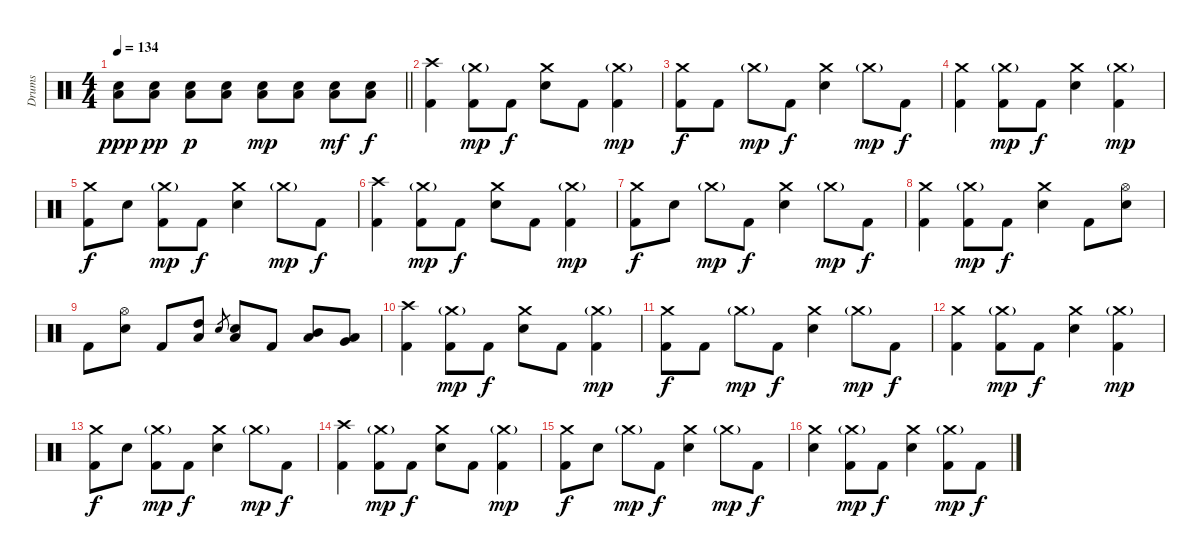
\track ("Drums" "Drums") {instrument percussion}
\staff {score}
\articulation defaults
\ts (4 4)
\tempo 134
\clef neutral
\barLineRight lightlight
\ks c
("Low Tom (hit)" "Electric Snare (hit)").8{dy ppp} ("Low Tom (hit)" "Electric Snare (hit)").8{dy pp} ("Low Tom (hit)" "Electric Snare (hit)").8{dy p} ("Low Tom (hit)" "Electric Snare (hit)").8 ("Low Tom (hit)" "Electric Snare (hit)").8{dy mp} ("Low Tom (hit)" "Electric Snare (hit)").8 ("Low Tom (hit)" "Electric Snare (hit)").8{dy mf} ("Low Tom (hit)" "Electric Snare (hit)").8{dy f} |
("Crash high (hit)" "Kick (hit) 2").4 ("Crash medium (hit)"{g} "Kick (hit) 2").8{dy mp} "Kick (hit) 2".8{dy f} ("Crash medium (hit)" "Electric Snare (hit)").8 "Kick (hit) 2".8 ("Crash medium (hit)"{g} "Kick (hit) 2").4{dy mp} |
("Crash medium (hit)" "Kick (hit) 2").8{dy f} "Kick (hit) 2".8 "Crash medium (hit)"{g}.8{dy mp} "Kick (hit) 2".8{dy f} ("Crash medium (hit)" "Electric Snare (hit)").4 "Crash medium (hit)"{g}.8{dy mp} "Kick (hit) 2".8{dy f} |
("Crash medium (hit)" "Kick (hit) 2").4 ("Crash medium (hit)"{g} "Kick (hit) 2").8{dy mp} "Kick (hit) 2".8{dy f} ("Crash medium (hit)" "Electric Snare (hit)").4 ("Crash medium (hit)"{g} "Kick (hit) 2").4{dy mp} |
("Crash medium (hit)" "Kick (hit) 2").8{dy f} "Electric Snare (hit)".8 ("Crash medium (hit)"{g} "Kick (hit) 2").8{dy mp} "Kick (hit) 2".8{dy f} ("Crash medium (hit)" "Electric Snare (hit)").4 "Crash medium (hit)"{g}.8{dy mp} "Kick (hit) 2".8{dy f} |
("Crash high (hit)" "Kick (hit) 2").4 ("Crash medium (hit)"{g} "Kick (hit) 2").8{dy mp} "Kick (hit) 2".8{dy f} ("Crash medium (hit)" "Electric Snare (hit)").8 "Kick (hit) 2".8 ("Crash medium (hit)"{g} "Kick (hit) 2").4{dy mp} |
("Crash medium (hit)" "Kick (hit) 2").8{dy f} "Electric Snare (hit)".8 "Crash medium (hit)"{g}.8{dy mp} "Kick (hit) 2".8{dy f} ("Crash medium (hit)" "Electric Snare (hit)").4 "Crash medium (hit)"{g}.8{dy mp} "Kick (hit) 2".8{dy f} |
("Crash medium (hit)" "Kick (hit) 2").4 ("Crash medium (hit)"{g} "Kick (hit) 2").8{dy mp} "Kick (hit) 2".8{dy f} ("Crash medium (hit)" "Electric Snare (hit)").4 "Kick (hit) 2".8 ("Hi-Hat (open)" "Electric Snare (hit)").8 |
"Kick (hit) 2".8 ("Hi-Hat (open)" "Electric Snare (hit)").8 "Kick (hit) 2".8 ("High Tom (hit)" "Low Tom (hit)").8 "Electric Snare (hit)".8{gr} ("Low Tom (hit)" "Electric Snare (hit)").8 "Kick (hit) 2".8 ("Mid Tom (hit)" "Low Tom (hit)").8 ("Low Tom (hit)" "Very Low Tom (hit)").8 |
("Crash high (hit)" "Kick (hit) 2").4 ("Crash medium (hit)"{g} "Kick (hit) 2").8{dy mp} "Kick (hit) 2".8{dy f} ("Crash medium (hit)" "Electric Snare (hit)").8 "Kick (hit) 2".8 ("Crash medium (hit)"{g} "Kick (hit) 2").4{dy mp} |
("Crash medium (hit)" "Kick (hit) 2").8{dy f} "Kick (hit) 2".8 "Crash medium (hit)"{g}.8{dy mp} "Kick (hit) 2".8{dy f} ("Crash medium (hit)" "Electric Snare (hit)").4 "Crash medium (hit)"{g}.8{dy mp} "Kick (hit) 2".8{dy f} |
("Crash medium (hit)" "Kick (hit) 2").4 ("Crash medium (hit)"{g} "Kick (hit) 2").8{dy mp} "Kick (hit) 2".8{dy f} ("Crash medium (hit)" "Electric Snare (hit)").4 ("Crash medium (hit)"{g} "Kick (hit) 2").4{dy mp} |
("Crash medium (hit)" "Kick (hit) 2").8{dy f} "Electric Snare (hit)".8 ("Crash medium (hit)"{g} "Kick (hit) 2").8{dy mp} "Kick (hit) 2".8{dy f} ("Crash medium (hit)" "Electric Snare (hit)").4 "Crash medium (hit)"{g}.8{dy mp} "Kick (hit) 2".8{dy f} |
("Crash high (hit)" "Kick (hit) 2").4 ("Crash medium (hit)"{g} "Kick (hit) 2").8{dy mp} "Kick (hit) 2".8{dy f} ("Crash medium (hit)" "Electric Snare (hit)").8 "Kick (hit) 2".8 ("Crash medium (hit)"{g} "Kick (hit) 2").4{dy mp} |
("Crash medium (hit)" "Kick (hit) 2").8{dy f} "Electric Snare (hit)".8 "Crash medium (hit)"{g}.8{dy mp} "Kick (hit) 2".8{dy f} ("Crash medium (hit)" "Electric Snare (hit)").4 "Crash medium (hit)"{g}.8{dy mp} "Kick (hit) 2".8{dy f} |
("Crash medium (hit)" "Electric Snare (hit)").4 ("Crash medium (hit)"{g} "Kick (hit) 2").8{dy mp} "Kick (hit) 2".8{dy f} ("Crash medium (hit)" "Electric Snare (hit)").4 ("Crash medium (hit)"{g} "Kick (hit) 2").8{dy mp} "Kick (hit) 2".8{dy f}
